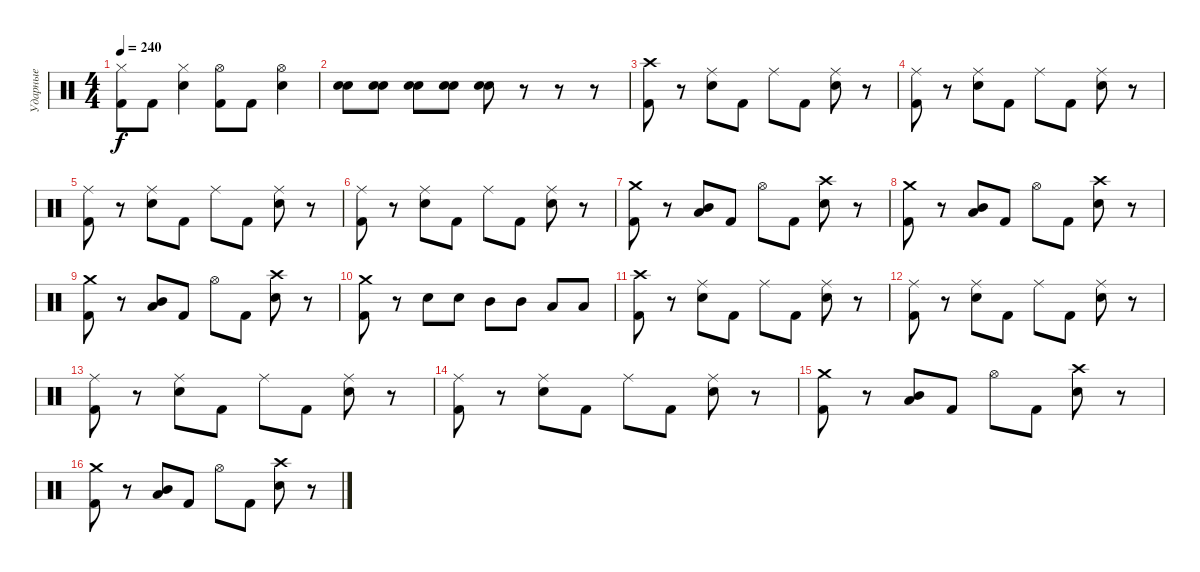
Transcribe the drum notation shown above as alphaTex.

\track ("Ударные" "Ударные") {instrument percussion}
\staff {score}
\articulation defaults
\ts (4 4)
\tempo 240
\clef neutral
\ks c
("Kick (hit) 2" "Hi-Hat (closed)").8{dy f} "Kick (hit) 2".8 ("Electric Snare (hit)" "Hi-Hat (closed)").4 ("Kick (hit) 2" "Hi-Hat (open)").8 "Kick (hit) 2".8 ("Electric Snare (hit)" "Hi-Hat (open)").4 |
("Electric Snare (hit)" "Electric Snare (hit)").8 ("Electric Snare (hit)" "Electric Snare (hit)").8 ("Electric Snare (hit)" "Electric Snare (hit)").8 ("Electric Snare (hit)" "Electric Snare (hit)").8 ("Electric Snare (hit)" "Electric Snare (hit)").8 r.8 r.8 r.8 |
("Kick (hit) 2" "Crash high (hit)").8 r.8 ("Electric Snare (hit)" "Ride (middle)").8 "Kick (hit) 2".8 "Ride (middle)".8 "Kick (hit) 2".8 ("Electric Snare (hit)" "Ride (middle)").8 r.8 |
("Kick (hit) 2" "Ride (middle)").8 r.8 ("Electric Snare (hit)" "Ride (middle)").8 "Kick (hit) 2".8 "Ride (middle)".8 "Kick (hit) 2".8 ("Electric Snare (hit)" "Ride (middle)").8 r.8 |
("Kick (hit) 2" "Ride (middle)").8 r.8 ("Electric Snare (hit)" "Ride (middle)").8 "Kick (hit) 2".8 "Ride (middle)".8 "Kick (hit) 2".8 ("Electric Snare (hit)" "Ride (middle)").8 r.8 |
("Kick (hit) 2" "Ride (middle)").8 r.8 ("Electric Snare (hit)" "Ride (middle)").8 "Kick (hit) 2".8 "Ride (middle)".8 "Kick (hit) 2".8 ("Electric Snare (hit)" "Ride (middle)").8 r.8 |
("Kick (hit) 2" "Crash medium (hit)").8 r.8 ("Mid Tom (hit)" "Low Tom (hit)").8 "Kick (hit) 2".8 "Hi-Hat (open)".8 "Kick (hit) 2".8 ("Electric Snare (hit)" "Crash high (hit)").8 r.8 |
("Kick (hit) 2" "Crash medium (hit)").8 r.8 ("Mid Tom (hit)" "Low Tom (hit)").8 "Kick (hit) 2".8 "Hi-Hat (open)".8 "Kick (hit) 2".8 ("Electric Snare (hit)" "Crash high (hit)").8 r.8 |
("Kick (hit) 2" "Crash medium (hit)").8 r.8 ("Mid Tom (hit)" "Low Tom (hit)").8 "Kick (hit) 2".8 "Hi-Hat (open)".8 "Kick (hit) 2".8 ("Electric Snare (hit)" "Crash high (hit)").8 r.8 |
("Kick (hit) 2" "Crash medium (hit)").8 r.8 "Electric Snare (hit)".8 "Electric Snare (hit)".8 "Mid Tom (hit)".8 "Mid Tom (hit)".8 "Low Tom (hit)".8 "Low Tom (hit)".8 |
("Kick (hit) 2" "Crash high (hit)").8 r.8 ("Electric Snare (hit)" "Ride (middle)").8 "Kick (hit) 2".8 "Ride (middle)".8 "Kick (hit) 2".8 ("Electric Snare (hit)" "Ride (middle)").8 r.8 |
("Kick (hit) 2" "Ride (middle)").8 r.8 ("Electric Snare (hit)" "Ride (middle)").8 "Kick (hit) 2".8 "Ride (middle)".8 "Kick (hit) 2".8 ("Electric Snare (hit)" "Ride (middle)").8 r.8 |
("Kick (hit) 2" "Ride (middle)").8 r.8 ("Electric Snare (hit)" "Ride (middle)").8 "Kick (hit) 2".8 "Ride (middle)".8 "Kick (hit) 2".8 ("Electric Snare (hit)" "Ride (middle)").8 r.8 |
("Kick (hit) 2" "Ride (middle)").8 r.8 ("Electric Snare (hit)" "Ride (middle)").8 "Kick (hit) 2".8 "Ride (middle)".8 "Kick (hit) 2".8 ("Electric Snare (hit)" "Ride (middle)").8 r.8 |
("Kick (hit) 2" "Crash medium (hit)").8 r.8 ("Mid Tom (hit)" "Low Tom (hit)").8 "Kick (hit) 2".8 "Hi-Hat (open)".8 "Kick (hit) 2".8 ("Electric Snare (hit)" "Crash high (hit)").8 r.8 |
("Kick (hit) 2" "Crash medium (hit)").8 r.8 ("Mid Tom (hit)" "Low Tom (hit)").8 "Kick (hit) 2".8 "Hi-Hat (open)".8 "Kick (hit) 2".8 ("Electric Snare (hit)" "Crash high (hit)").8 r.8
